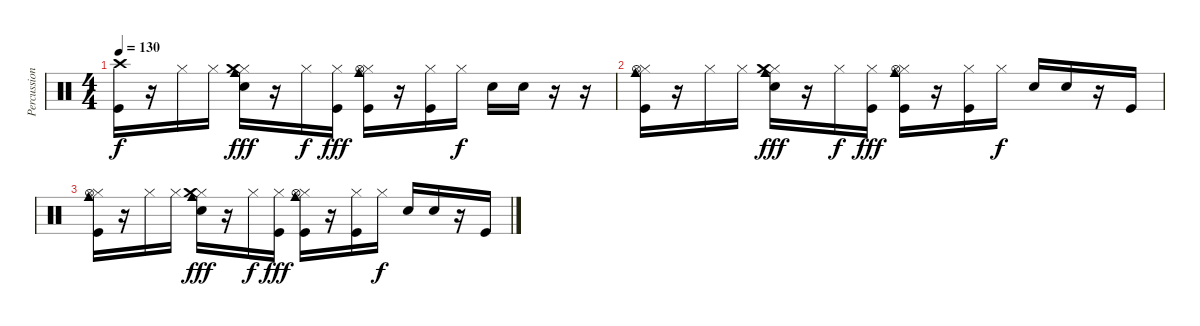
\track ("Percussions" "Percussion") {instrument percussion}
\staff {score}
\articulation defaults
\ts (4 4)
\tempo 130
\clef neutral
\ks c
("Crash high (hit)" "Kick (hit)").16{dy f} r.16 "Hi-Hat (closed)".16 "Hi-Hat (closed)".16 ("Cowbell medium (hit)" "Hi-Hat (closed)" "Crash medium (hit)" "Snare (hit) 2").16{dy fff} r.16 "Hi-Hat (closed)".16{dy f} ("Hi-Hat (closed)" "Kick (hit)").16{dy fff} ("Cowbell medium (hit)" "Hi-Hat (closed)" "Hi-Hat (open)" "Kick (hit)").16 r.16 ("Hi-Hat (closed)" "Kick (hit)").16 "Hi-Hat (closed)".16{dy f} "Snare (hit) 2".16 "Snare (hit) 2".16 r.16 r.16 |
("Cowbell medium (hit)" "Hi-Hat (closed)" "Hi-Hat (open)" "Kick (hit)").16 r.16 "Hi-Hat (closed)".16 "Hi-Hat (closed)".16 ("Cowbell medium (hit)" "Hi-Hat (closed)" "Crash medium (hit)" "Snare (hit) 2").16{dy fff} r.16 "Hi-Hat (closed)".16{dy f} ("Hi-Hat (closed)" "Kick (hit)").16{dy fff} ("Cowbell medium (hit)" "Hi-Hat (closed)" "Hi-Hat (open)" "Kick (hit)").16 r.16 ("Hi-Hat (closed)" "Kick (hit)").16 "Hi-Hat (closed)".16{dy f} "Snare (hit) 2".16 "Snare (hit) 2".16 r.16 "Kick (hit)".16 |
("Cowbell medium (hit)" "Hi-Hat (closed)" "Hi-Hat (open)" "Kick (hit)").16 r.16 "Hi-Hat (closed)".16 "Hi-Hat (closed)".16 ("Cowbell medium (hit)" "Hi-Hat (closed)" "Crash medium (hit)" "Snare (hit) 2").16{dy fff} r.16 "Hi-Hat (closed)".16{dy f} ("Hi-Hat (closed)" "Kick (hit)").16{dy fff} ("Cowbell medium (hit)" "Hi-Hat (closed)" "Hi-Hat (open)" "Kick (hit)").16 r.16 ("Hi-Hat (closed)" "Kick (hit)").16 "Hi-Hat (closed)".16{dy f} "Snare (hit) 2".16 "Snare (hit) 2".16 r.16 "Kick (hit)".16
